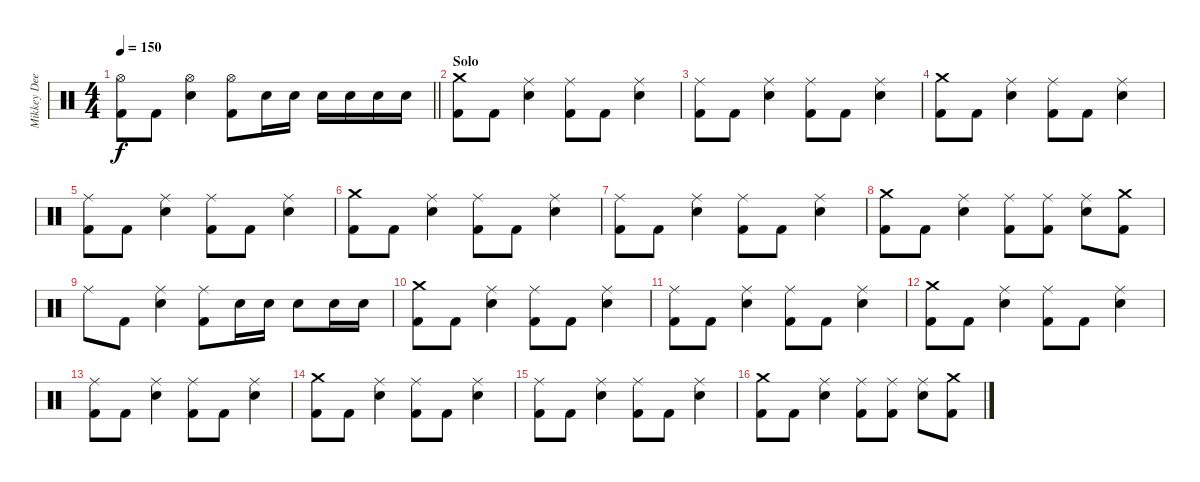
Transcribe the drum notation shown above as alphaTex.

\track ("Mikkey Dee" "Mikkey Dee") {instrument percussion}
\staff {score}
\articulation defaults
\ts (4 4)
\tempo 150
\clef neutral
\barLineRight lightlight
\ks c
("Hi-Hat (open)" "Kick (hit) 2").8{dy f} "Kick (hit) 2".8 ("Hi-Hat (open)" "Electric Snare (hit)").4 ("Hi-Hat (open)" "Kick (hit) 2").8 "Electric Snare (hit)".16 "Electric Snare (hit)".16 "Electric Snare (hit)".16 "Electric Snare (hit)".16 "Electric Snare (hit)".16 "Electric Snare (hit)".16 |
\section ("" "Solo")
("Crash medium (hit)" "Kick (hit) 2").8 "Kick (hit) 2".8 ("Ride (middle)" "Electric Snare (hit)").4 ("Ride (middle)" "Kick (hit) 2").8 "Kick (hit) 2".8 ("Ride (middle)" "Electric Snare (hit)").4 |
("Ride (middle)" "Kick (hit) 2").8 "Kick (hit) 2".8 ("Ride (middle)" "Electric Snare (hit)").4 ("Ride (middle)" "Kick (hit) 2").8 "Kick (hit) 2".8 ("Ride (middle)" "Electric Snare (hit)").4 |
("Crash medium (hit)" "Kick (hit) 2").8 "Kick (hit) 2".8 ("Ride (middle)" "Electric Snare (hit)").4 ("Ride (middle)" "Kick (hit) 2").8 "Kick (hit) 2".8 ("Ride (middle)" "Electric Snare (hit)").4 |
("Ride (middle)" "Kick (hit) 2").8 "Kick (hit) 2".8 ("Ride (middle)" "Electric Snare (hit)").4 ("Ride (middle)" "Kick (hit) 2").8 "Kick (hit) 2".8 ("Ride (middle)" "Electric Snare (hit)").4 |
("Crash medium (hit)" "Kick (hit) 2").8 "Kick (hit) 2".8 ("Ride (middle)" "Electric Snare (hit)").4 ("Ride (middle)" "Kick (hit) 2").8 "Kick (hit) 2".8 ("Ride (middle)" "Electric Snare (hit)").4 |
("Ride (middle)" "Kick (hit) 2").8 "Kick (hit) 2".8 ("Ride (middle)" "Electric Snare (hit)").4 ("Ride (middle)" "Kick (hit) 2").8 "Kick (hit) 2".8 ("Ride (middle)" "Electric Snare (hit)").4 |
("Crash medium (hit)" "Kick (hit) 2").8 "Kick (hit) 2".8 ("Ride (middle)" "Electric Snare (hit)").4 ("Ride (middle)" "Kick (hit) 2").8 ("Ride (middle)" "Kick (hit) 2").8 ("Ride (middle)" "Electric Snare (hit)").8 ("Crash medium (hit)" "Kick (hit) 2").8 |
"Ride (middle)".8 "Kick (hit) 2".8 ("Ride (middle)" "Electric Snare (hit)").4 ("Ride (middle)" "Kick (hit) 2").8 "Electric Snare (hit)".16 "Electric Snare (hit)".16 "Electric Snare (hit)".8 "Electric Snare (hit)".16 "Electric Snare (hit)".16 |
("Crash medium (hit)" "Kick (hit) 2").8 "Kick (hit) 2".8 ("Ride (middle)" "Electric Snare (hit)").4 ("Ride (middle)" "Kick (hit) 2").8 "Kick (hit) 2".8 ("Ride (middle)" "Electric Snare (hit)").4 |
("Ride (middle)" "Kick (hit) 2").8 "Kick (hit) 2".8 ("Ride (middle)" "Electric Snare (hit)").4 ("Ride (middle)" "Kick (hit) 2").8 "Kick (hit) 2".8 ("Ride (middle)" "Electric Snare (hit)").4 |
("Crash medium (hit)" "Kick (hit) 2").8 "Kick (hit) 2".8 ("Ride (middle)" "Electric Snare (hit)").4 ("Ride (middle)" "Kick (hit) 2").8 "Kick (hit) 2".8 ("Ride (middle)" "Electric Snare (hit)").4 |
("Ride (middle)" "Kick (hit) 2").8 "Kick (hit) 2".8 ("Ride (middle)" "Electric Snare (hit)").4 ("Ride (middle)" "Kick (hit) 2").8 "Kick (hit) 2".8 ("Ride (middle)" "Electric Snare (hit)").4 |
("Crash medium (hit)" "Kick (hit) 2").8 "Kick (hit) 2".8 ("Ride (middle)" "Electric Snare (hit)").4 ("Ride (middle)" "Kick (hit) 2").8 "Kick (hit) 2".8 ("Ride (middle)" "Electric Snare (hit)").4 |
("Ride (middle)" "Kick (hit) 2").8 "Kick (hit) 2".8 ("Ride (middle)" "Electric Snare (hit)").4 ("Ride (middle)" "Kick (hit) 2").8 "Kick (hit) 2".8 ("Ride (middle)" "Electric Snare (hit)").4 |
("Crash medium (hit)" "Kick (hit) 2").8 "Kick (hit) 2".8 ("Ride (middle)" "Electric Snare (hit)").4 ("Ride (middle)" "Kick (hit) 2").8 ("Ride (middle)" "Kick (hit) 2").8 ("Ride (middle)" "Electric Snare (hit)").8 ("Crash medium (hit)" "Kick (hit) 2").8
